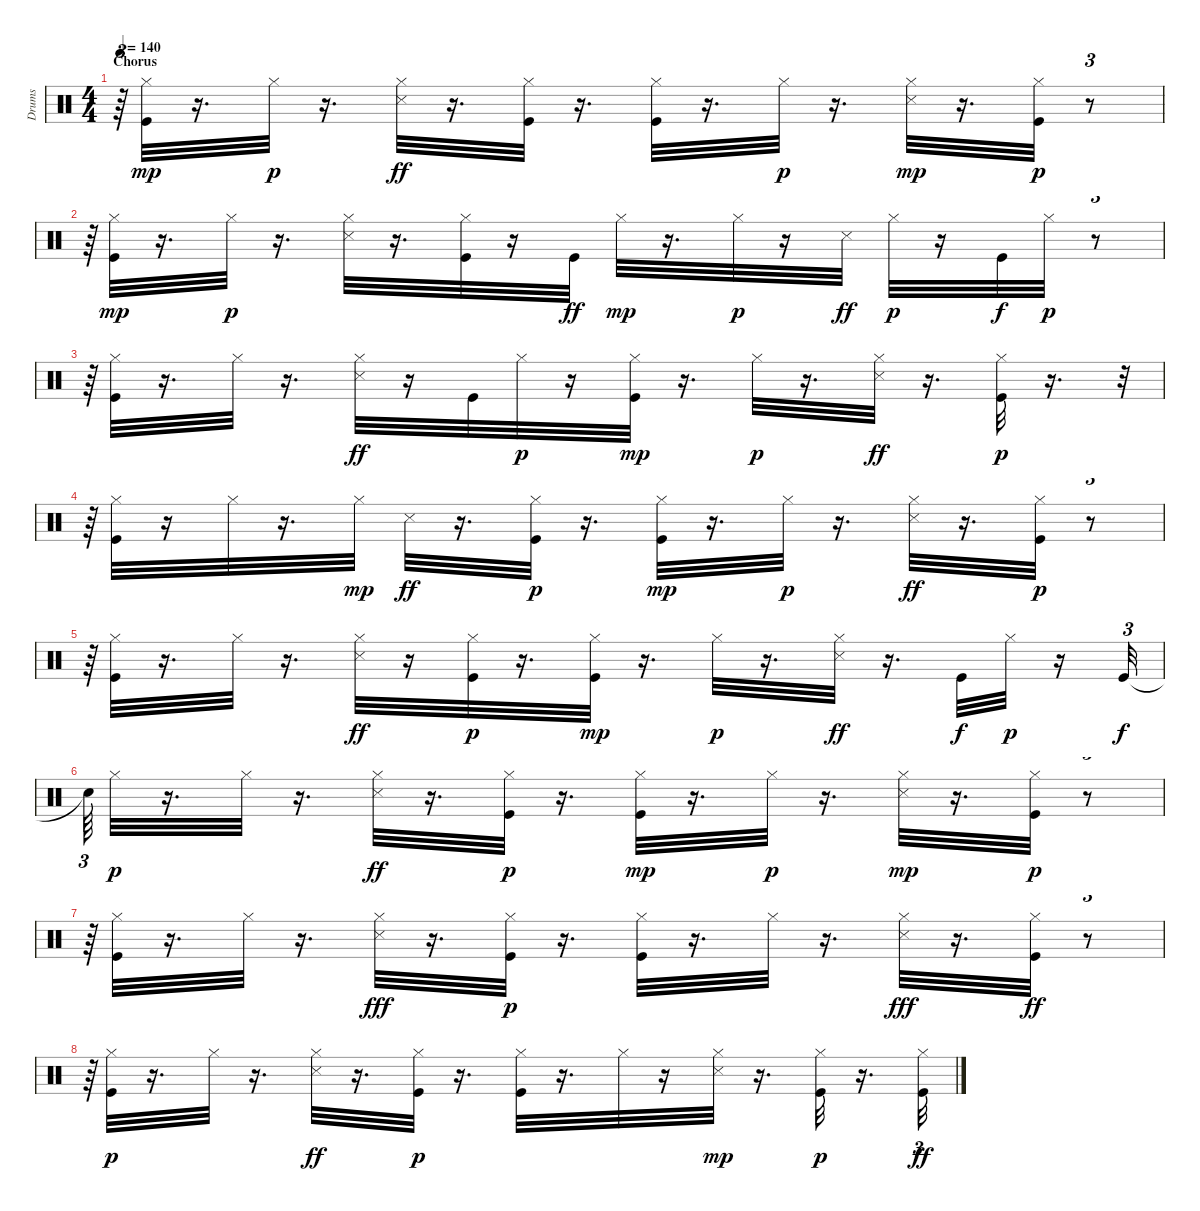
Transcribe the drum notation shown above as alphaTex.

\track ("Drums" "Drums") {instrument percussion}
\staff {score}
\articulation defaults
\ts (4 4)
\section ("" "Chorus")
\tempo 140
\clef neutral
\ks c
r.64{tu (3 2) dy p} ("Kick (hit)" "Hi-Hat (closed)").32{dy mp} r.16{d} "Hi-Hat (closed)".32{dy p} r.16{d} ("Hi-Hat (closed)" "Snare (side stick) 3").32{dy ff} r.16{d} ("Hi-Hat (closed)" "Kick (hit)").32 r.16{d} ("Hi-Hat (closed)" "Kick (hit)").32 r.16{d} "Hi-Hat (closed)".32{dy p} r.16{d} ("Snare (side stick) 3" "Hi-Hat (closed)").32{dy mp} r.16{d} ("Hi-Hat (closed)" "Kick (hit)").32{dy p} r.8{tu (3 2)} |
r.64{tu (3 2)} ("Hi-Hat (closed)" "Kick (hit)").32{dy mp} r.16{d} "Hi-Hat (closed)".32{dy p} r.16{d} ("Snare (side stick) 3" "Hi-Hat (closed)").32 r.16{d} ("Kick (hit)" "Hi-Hat (closed)").32 r.16 "Kick (hit)".32{dy ff} "Hi-Hat (closed)".32{dy mp} r.16{d} "Hi-Hat (closed)".32{dy p} r.16 "Snare (side stick) 3".32{dy ff} "Hi-Hat (closed)".32{dy p} r.16 "Kick (hit)".32{dy f} "Hi-Hat (closed)".32{dy p} r.8{tu (3 2)} |
r.64{tu (3 2)} ("Kick (hit)" "Hi-Hat (closed)").32 r.16{d} "Hi-Hat (closed)".32 r.16{d} ("Hi-Hat (closed)" "Snare (side stick) 3").32{dy ff} r.16 "Kick (hit)".32 "Hi-Hat (closed)".32{dy p} r.16 ("Hi-Hat (closed)" "Kick (hit)").32{dy mp} r.16{d} "Hi-Hat (closed)".32{dy p} r.16{d} ("Hi-Hat (closed)" "Snare (side stick) 3").32{dy ff} r.16{d} ("Hi-Hat (closed)" "Kick (hit)").32{dy p} r.16{d} r.32{tu (3 2)} |
r.64{tu (3 2)} ("Hi-Hat (closed)" "Kick (hit)").32 r.16 "Hi-Hat (closed)".32 r.16{d} "Hi-Hat (closed)".32{dy mp} "Snare (side stick) 3".32{dy ff} r.16{d} ("Hi-Hat (closed)" "Kick (hit)").32{dy p} r.16{d} ("Kick (hit)" "Hi-Hat (closed)").32{dy mp} r.16{d} "Hi-Hat (closed)".32{dy p} r.16{d} ("Hi-Hat (closed)" "Snare (side stick) 3").32{dy ff} r.16{d} ("Kick (hit)" "Hi-Hat (closed)").32{dy p} r.8{tu (3 2)} |
r.64{tu (3 2)} ("Hi-Hat (closed)" "Kick (hit)").32 r.16{d} "Hi-Hat (closed)".32 r.16{d} ("Hi-Hat (closed)" "Snare (side stick) 3").32{dy ff} r.16 ("Kick (hit)" "Hi-Hat (closed)").32{dy p} r.16{d} ("Hi-Hat (closed)" "Kick (hit)").32{dy mp} r.16{d} "Hi-Hat (closed)".32{dy p} r.16{d} ("Hi-Hat (closed)" "Snare (side stick) 3").32{dy ff} r.16{d} "Kick (hit)".32{dy f} "Hi-Hat (closed)".32{dy p} r.16 "Kick (hit)".32{tu (3 2) dy f} |
"Snare (hit)"{t}.64{tu (3 2)} "Hi-Hat (closed)".32{dy p} r.16{d} "Hi-Hat (closed)".32 r.16{d} ("Hi-Hat (closed)" "Snare (side stick) 3").32{dy ff} r.16{d} ("Kick (hit)" "Hi-Hat (closed)").32{dy p} r.16{d} ("Kick (hit)" "Hi-Hat (closed)").32{dy mp} r.16{d} "Hi-Hat (closed)".32{dy p} r.16{d} ("Snare (side stick) 3" "Hi-Hat (closed)").32{dy mp} r.16{d} ("Kick (hit)" "Hi-Hat (closed)").32{dy p} r.8{tu (3 2)} |
r.64{tu (3 2)} ("Hi-Hat (closed)" "Kick (hit)").32 r.16{d} "Hi-Hat (closed)".32 r.16{d} ("Hi-Hat (closed)" "Snare (side stick) 3").32{dy fff} r.16{d} ("Hi-Hat (closed)" "Kick (hit)").32{dy p} r.16{d} ("Hi-Hat (closed)" "Kick (hit)").32 r.16{d} "Hi-Hat (closed)".32 r.16{d} ("Hi-Hat (closed)" "Snare (side stick) 3").32{dy fff} r.16{d} ("Hi-Hat (closed)" "Kick (hit)").32{dy ff} r.8{tu (3 2)} |
r.64{tu (3 2)} ("Kick (hit)" "Hi-Hat (closed)").32{dy p} r.16{d} "Hi-Hat (closed)".32 r.16{d} ("Hi-Hat (closed)" "Snare (side stick) 3").32{dy ff} r.16{d} ("Kick (hit)" "Hi-Hat (closed)").32{dy p} r.16{d} ("Kick (hit)" "Hi-Hat (closed)").32 r.16{d} "Hi-Hat (closed)".32 r.16 ("Snare (side stick) 3" "Hi-Hat (closed)").32{dy mp} r.16{d} ("Kick (hit)" "Hi-Hat (closed)").32{dy p} r.16{d} ("Hi-Hat (closed)" "Kick (hit)").32{tu (3 2) dy ff}
